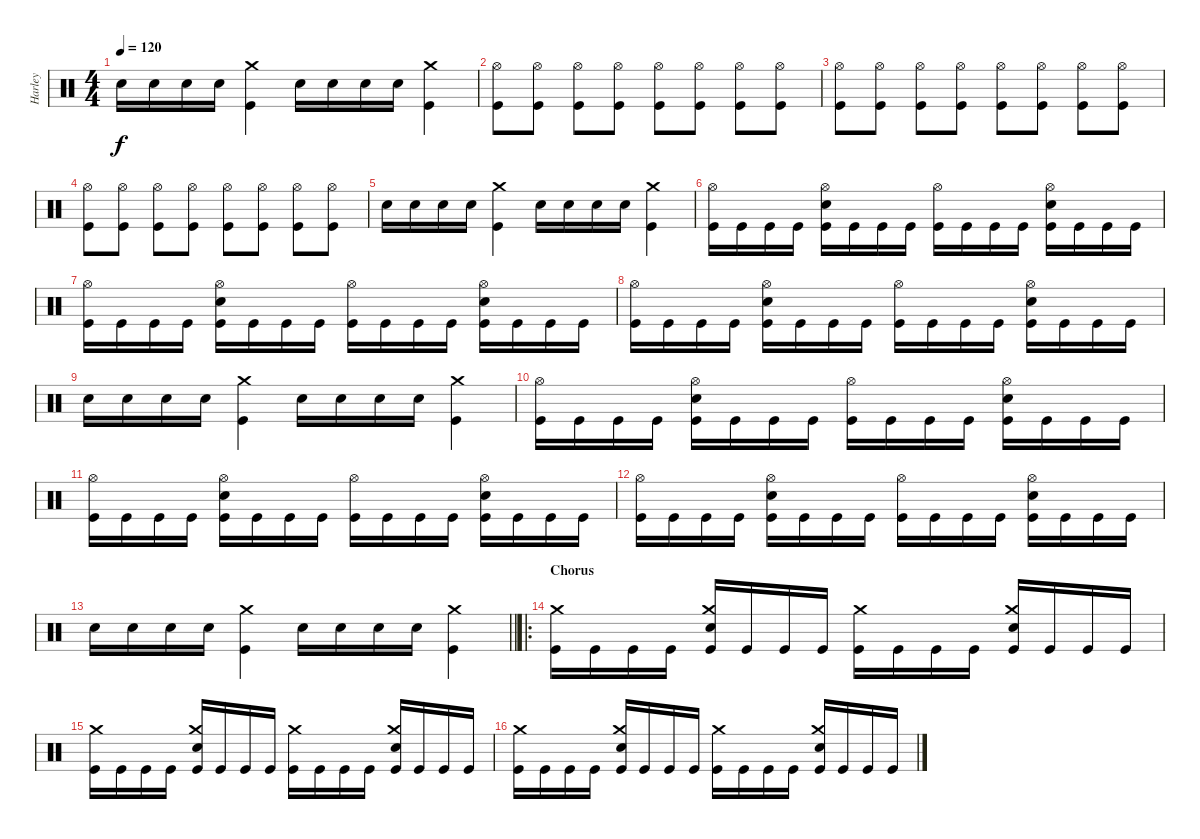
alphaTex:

\track ("Harley" "Harley") {instrument percussion}
\staff {score}
\articulation defaults
\ts (4 4)
\tempo 120
\clef neutral
\ks c "Snare (hit) 2".16{dy f} "Snare (hit) 2".16 "Snare (hit) 2".16 "Snare (hit) 2".16
("Crash medium (hit)" "Kick (hit)").4 "Snare (hit) 2".16 "Snare (hit) 2".16 "Snare (hit) 2".16 "Snare (hit) 2".16 ("Crash medium (hit)" "Kick (hit)").4 |
("Hi-Hat (open)" "Kick (hit)").8 ("Hi-Hat (open)" "Kick (hit)").8 ("Hi-Hat (open)" "Kick (hit)").8 ("Hi-Hat (open)" "Kick (hit)").8 ("Hi-Hat (open)" "Kick (hit)").8 ("Hi-Hat (open)" "Kick (hit)").8 ("Hi-Hat (open)" "Kick (hit)").8 ("Hi-Hat (open)" "Kick (hit)").8 |
("Hi-Hat (open)" "Kick (hit)").8 ("Hi-Hat (open)" "Kick (hit)").8 ("Hi-Hat (open)" "Kick (hit)").8 ("Hi-Hat (open)" "Kick (hit)").8 ("Hi-Hat (open)" "Kick (hit)").8 ("Hi-Hat (open)" "Kick (hit)").8 ("Hi-Hat (open)" "Kick (hit)").8 ("Hi-Hat (open)" "Kick (hit)").8 |
("Hi-Hat (open)" "Kick (hit)").8 ("Hi-Hat (open)" "Kick (hit)").8 ("Hi-Hat (open)" "Kick (hit)").8 ("Hi-Hat (open)" "Kick (hit)").8 ("Hi-Hat (open)" "Kick (hit)").8 ("Hi-Hat (open)" "Kick (hit)").8 ("Hi-Hat (open)" "Kick (hit)").8 ("Hi-Hat (open)" "Kick (hit)").8 |
"Snare (hit) 2".16 "Snare (hit) 2".16 "Snare (hit) 2".16 "Snare (hit) 2".16 ("Crash medium (hit)" "Kick (hit)").4 "Snare (hit) 2".16 "Snare (hit) 2".16 "Snare (hit) 2".16 "Snare (hit) 2".16 ("Crash medium (hit)" "Kick (hit)").4 |
("Hi-Hat (open)" "Kick (hit)").16 "Kick (hit)".16 "Kick (hit)".16 "Kick (hit)".16 ("Hi-Hat (open)" "Snare (hit) 2" "Kick (hit)").16 "Kick (hit)".16 "Kick (hit)".16 "Kick (hit)".16 ("Hi-Hat (open)" "Kick (hit)").16 "Kick (hit)".16 "Kick (hit)".16 "Kick (hit)".16 ("Hi-Hat (open)" "Snare (hit) 2" "Kick (hit)").16 "Kick (hit)".16 "Kick (hit)".16 "Kick (hit)".16 |
("Hi-Hat (open)" "Kick (hit)").16 "Kick (hit)".16 "Kick (hit)".16 "Kick (hit)".16 ("Hi-Hat (open)" "Snare (hit) 2" "Kick (hit)").16 "Kick (hit)".16 "Kick (hit)".16 "Kick (hit)".16 ("Hi-Hat (open)" "Kick (hit)").16 "Kick (hit)".16 "Kick (hit)".16 "Kick (hit)".16 ("Hi-Hat (open)" "Snare (hit) 2" "Kick (hit)").16 "Kick (hit)".16 "Kick (hit)".16 "Kick (hit)".16 |
("Hi-Hat (open)" "Kick (hit)").16 "Kick (hit)".16 "Kick (hit)".16 "Kick (hit)".16 ("Hi-Hat (open)" "Snare (hit) 2" "Kick (hit)").16 "Kick (hit)".16 "Kick (hit)".16 "Kick (hit)".16 ("Hi-Hat (open)" "Kick (hit)").16 "Kick (hit)".16 "Kick (hit)".16 "Kick (hit)".16 ("Hi-Hat (open)" "Snare (hit) 2" "Kick (hit)").16 "Kick (hit)".16 "Kick (hit)".16 "Kick (hit)".16 |
"Snare (hit) 2".16 "Snare (hit) 2".16 "Snare (hit) 2".16 "Snare (hit) 2".16 ("Crash medium (hit)" "Kick (hit)").4 "Snare (hit) 2".16 "Snare (hit) 2".16 "Snare (hit) 2".16 "Snare (hit) 2".16 ("Crash medium (hit)" "Kick (hit)").4 |
("Hi-Hat (open)" "Kick (hit)").16 "Kick (hit)".16 "Kick (hit)".16 "Kick (hit)".16 ("Hi-Hat (open)" "Snare (hit) 2" "Kick (hit)").16 "Kick (hit)".16 "Kick (hit)".16 "Kick (hit)".16 ("Hi-Hat (open)" "Kick (hit)").16 "Kick (hit)".16 "Kick (hit)".16 "Kick (hit)".16 ("Hi-Hat (open)" "Snare (hit) 2" "Kick (hit)").16 "Kick (hit)".16 "Kick (hit)".16 "Kick (hit)".16 |
("Hi-Hat (open)" "Kick (hit)").16 "Kick (hit)".16 "Kick (hit)".16 "Kick (hit)".16 ("Hi-Hat (open)" "Snare (hit) 2" "Kick (hit)").16 "Kick (hit)".16 "Kick (hit)".16 "Kick (hit)".16 ("Hi-Hat (open)" "Kick (hit)").16 "Kick (hit)".16 "Kick (hit)".16 "Kick (hit)".16 ("Hi-Hat (open)" "Snare (hit) 2" "Kick (hit)").16 "Kick (hit)".16 "Kick (hit)".16 "Kick (hit)".16 |
("Hi-Hat (open)" "Kick (hit)").16 "Kick (hit)".16 "Kick (hit)".16 "Kick (hit)".16 ("Hi-Hat (open)" "Snare (hit) 2" "Kick (hit)").16 "Kick (hit)".16 "Kick (hit)".16 "Kick (hit)".16 ("Hi-Hat (open)" "Kick (hit)").16 "Kick (hit)".16 "Kick (hit)".16 "Kick (hit)".16 ("Hi-Hat (open)" "Snare (hit) 2" "Kick (hit)").16 "Kick (hit)".16 "Kick (hit)".16 "Kick (hit)".16 |
\barLineRight lightlight "Snare (hit) 2".16 "Snare (hit) 2".16 "Snare (hit) 2".16 "Snare (hit) 2".16
("Crash medium (hit)" "Kick (hit)").4 "Snare (hit) 2".16 "Snare (hit) 2".16 "Snare (hit) 2".16 "Snare (hit) 2".16 ("Crash medium (hit)" "Kick (hit)").4 |
\ro
\section ("" "Chorus")
("Crash medium (hit)" "Kick (hit)").16 "Kick (hit)".16 "Kick (hit)".16 "Kick (hit)".16 ("Crash medium (hit)" "Snare (hit) 2" "Kick (hit)").16 "Kick (hit)".16 "Kick (hit)".16 "Kick (hit)".16 ("Crash medium (hit)" "Kick (hit)").16 "Kick (hit)".16 "Kick (hit)".16 "Kick (hit)".16 ("Crash medium (hit)" "Snare (hit) 2" "Kick (hit)").16 "Kick (hit)".16 "Kick (hit)".16 "Kick (hit)".16 |
("Crash medium (hit)" "Kick (hit)").16 "Kick (hit)".16 "Kick (hit)".16 "Kick (hit)".16 ("Crash medium (hit)" "Snare (hit) 2" "Kick (hit)").16 "Kick (hit)".16 "Kick (hit)".16 "Kick (hit)".16 ("Crash medium (hit)" "Kick (hit)").16 "Kick (hit)".16 "Kick (hit)".16 "Kick (hit)".16 ("Crash medium (hit)" "Snare (hit) 2" "Kick (hit)").16 "Kick (hit)".16 "Kick (hit)".16 "Kick (hit)".16 |
("Crash medium (hit)" "Kick (hit)").16 "Kick (hit)".16 "Kick (hit)".16 "Kick (hit)".16 ("Crash medium (hit)" "Snare (hit) 2" "Kick (hit)").16 "Kick (hit)".16 "Kick (hit)".16 "Kick (hit)".16 ("Crash medium (hit)" "Kick (hit)").16 "Kick (hit)".16 "Kick (hit)".16 "Kick (hit)".16 ("Crash medium (hit)" "Snare (hit) 2" "Kick (hit)").16 "Kick (hit)".16 "Kick (hit)".16 "Kick (hit)".16
